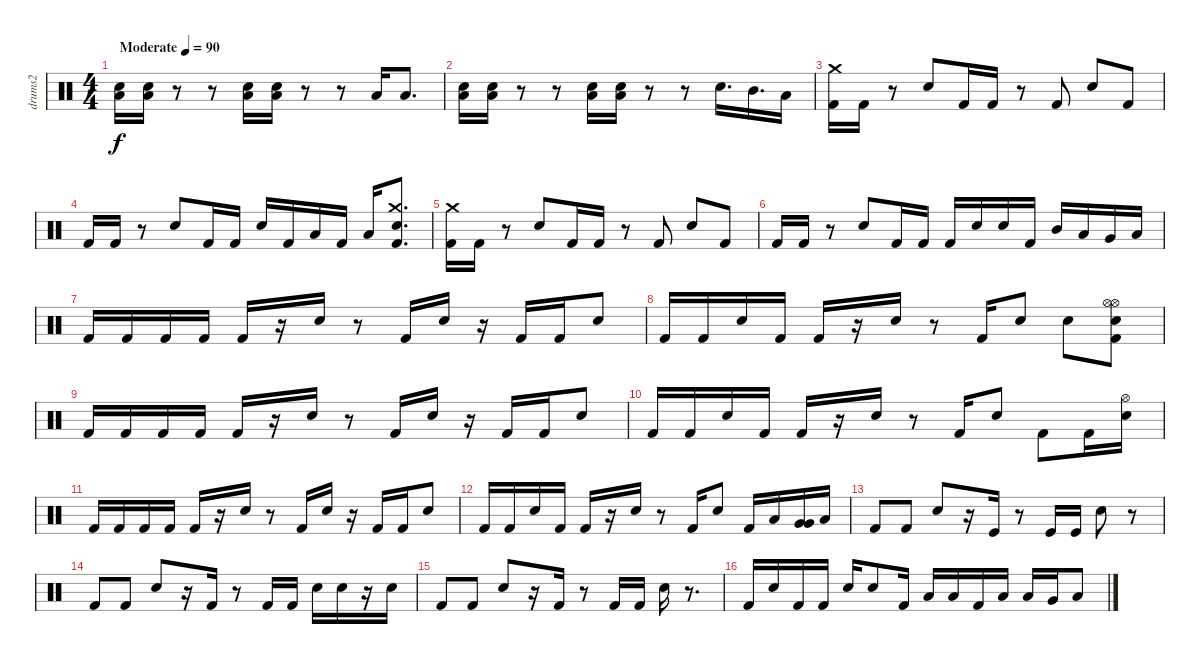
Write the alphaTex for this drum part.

\track ("drums2" "drums2") {instrument percussion}
\staff {score}
\articulation defaults
\ts (4 4)
\tempo (90 "Moderate")
\clef neutral
\ks c
("Low Floor Tom (hit)" "Snare (hit) 2").16{dy f} ("Low Floor Tom (hit)" "Snare (hit) 2").16 r.8 r.8 ("Low Floor Tom (hit)" "Snare (hit) 2").16 ("Low Floor Tom (hit)" "Snare (hit) 2").16 r.8 r.8 "Low Tom (hit)".16 "Low Floor Tom (hit)".8{d} |
("Low Floor Tom (hit)" "Snare (hit) 2").16 ("Low Floor Tom (hit)" "Snare (hit) 2").16 r.8 r.8 ("Low Floor Tom (hit)" "Snare (hit) 2").16 ("Low Floor Tom (hit)" "Snare (hit) 2").16 r.8 r.8 "Snare (hit) 2".16{d} "Mid Tom (hit)".16{d} "Low Tom (hit)".16 |
("Crash medium (hit)" "Kick (hit) 2").16 "Kick (hit) 2".16 r.8 "Snare (hit) 2".8 "Kick (hit) 2".16 "Kick (hit) 2".16 r.8 "Kick (hit) 2".8 "Snare (hit) 2".8 "Kick (hit) 2".8 |
"Kick (hit) 2".16 "Kick (hit) 2".16 r.8 "Snare (hit) 2".8 "Kick (hit) 2".16 "Kick (hit) 2".16 "Snare (hit) 2".16 "Kick (hit) 2".16 "Low Tom (hit)".16 "Kick (hit) 2".16 "Low Floor Tom (hit)".16 ("Crash medium (hit)" "Kick (hit) 2" "Snare (hit) 2").8{d} |
("Crash medium (hit)" "Kick (hit) 2").16 "Kick (hit) 2".16 r.8 "Snare (hit) 2".8 "Kick (hit) 2".16 "Kick (hit) 2".16 r.8 "Kick (hit) 2".8 "Snare (hit) 2".8 "Kick (hit) 2".8 |
"Kick (hit) 2".16 "Kick (hit) 2".16 r.8 "Snare (hit) 2".8 "Kick (hit) 2".16 "Kick (hit) 2".16 "Kick (hit) 2".16 "Snare (hit) 2".16 "Snare (hit) 2".16 "Kick (hit) 2".16 "Mid Tom (hit)".16 "Low Tom (hit)".16 "Very Low Tom (hit)".16 "Low Floor Tom (hit)".16 |
"Kick (hit) 2".16 "Kick (hit) 2".16 "Kick (hit) 2".16 "Kick (hit) 2".16 "Kick (hit) 2".16 r.16 "Snare (hit) 2".16 r.8 "Kick (hit) 2".16 "Snare (hit) 2".16 r.16 "Kick (hit) 2".16 "Kick (hit) 2".16 "Snare (hit) 2".8 |
"Kick (hit) 2".16 "Kick (hit) 2".16 "Snare (hit) 2".16 "Kick (hit) 2".16 "Kick (hit) 2".16 r.16 "Snare (hit) 2".16 r.8 "Kick (hit) 2".16 "Snare (hit) 2".8 "Snare (hit) 2".8 ("Hi-Hat (open)" "Hi-Hat (open)" "Kick (hit) 2" "Snare (hit) 2").8 |
"Kick (hit) 2".16 "Kick (hit) 2".16 "Kick (hit) 2".16 "Kick (hit) 2".16 "Kick (hit) 2".16 r.16 "Snare (hit) 2".16 r.8 "Kick (hit) 2".16 "Snare (hit) 2".16 r.16 "Kick (hit) 2".16 "Kick (hit) 2".16 "Snare (hit) 2".8 |
"Kick (hit) 2".16 "Kick (hit) 2".16 "Snare (hit) 2".16 "Kick (hit) 2".16 "Kick (hit) 2".16 r.16 "Snare (hit) 2".16 r.8 "Kick (hit) 2".16 "Snare (hit) 2".8 "Kick (hit) 2".8 "Kick (hit) 2".16 ("Snare (hit) 2" "Hi-Hat (open)").16 |
"Kick (hit) 2".16 "Kick (hit) 2".16 "Kick (hit) 2".16 "Kick (hit) 2".16 "Kick (hit) 2".16 r.16 "Snare (hit) 2".16 r.8 "Kick (hit) 2".16 "Snare (hit) 2".16 r.16 "Kick (hit) 2".16 "Kick (hit) 2".16 "Snare (hit) 2".8 |
"Kick (hit) 2".16 "Kick (hit) 2".16 "Snare (hit) 2".16 "Kick (hit) 2".16 "Kick (hit) 2".16 r.16 "Snare (hit) 2".16 r.8 "Kick (hit) 2".16 "Snare (hit) 2".8 "Kick (hit) 2".16 "Low Tom (hit)".16 ("Very Low Tom (hit)" "Very Low Tom (hit)").16 "Low Floor Tom (hit)".16 |
"Kick (hit) 2".8 "Kick (hit) 2".8 "Snare (hit) 2".8 r.16 "Kick (hit)".16 r.8 "Kick (hit)".16 "Kick (hit)".16 "Snare (hit) 2".8 r.8 |
"Kick (hit) 2".8 "Kick (hit) 2".8 "Snare (hit) 2".8 r.16 "Kick (hit) 2".16 r.8 "Kick (hit) 2".16 "Kick (hit) 2".16 "Snare (hit) 2".16 "Snare (hit) 2".16 r.16 "Snare (hit) 2".16 |
"Kick (hit) 2".8 "Kick (hit) 2".8 "Snare (hit) 2".8 r.16 "Kick (hit) 2".16 r.8 "Kick (hit) 2".16 "Kick (hit) 2".16 "Snare (hit) 2".16 r.8{d} |
"Kick (hit) 2".16 "Snare (hit) 2".16 "Kick (hit) 2".16 "Kick (hit) 2".16 "Snare (hit) 2".16 "Snare (hit) 2".8 "Kick (hit) 2".16 "Low Floor Tom (hit)".16 "Low Floor Tom (hit)".16 "Kick (hit) 2".16 "Low Tom (hit)".16 "Low Tom (hit)".16 "Very Low Tom (hit)".16 "Low Floor Tom (hit)".8
